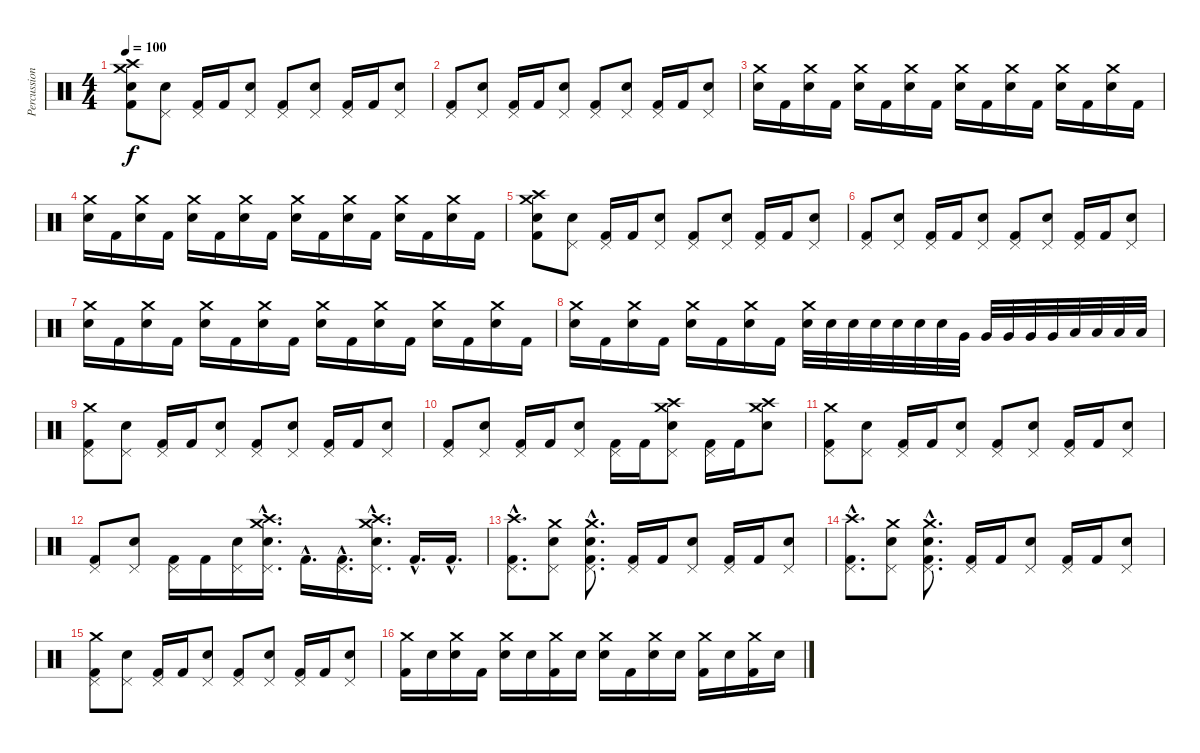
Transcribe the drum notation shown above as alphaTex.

\track ("Percussion" "Percussion") {instrument percussion}
\staff {score}
\articulation defaults
\ts (4 4)
\tempo 100
\clef neutral
\ks c
("Crash medium (hit)" "Crash high (hit)" "Electric Snare (hit)" "Kick (hit) 2").8{dy f} ("Pedal Hi-Hat (hit)" "Electric Snare (hit)").8 ("Pedal Hi-Hat (hit)" "Kick (hit) 2").16 "Kick (hit) 2".16 ("Pedal Hi-Hat (hit)" "Electric Snare (hit)").8 ("Pedal Hi-Hat (hit)" "Kick (hit) 2").8 ("Pedal Hi-Hat (hit)" "Electric Snare (hit)").8 ("Pedal Hi-Hat (hit)" "Kick (hit) 2").16 "Kick (hit) 2".16 ("Pedal Hi-Hat (hit)" "Electric Snare (hit)").8 |
("Pedal Hi-Hat (hit)" "Kick (hit) 2").8 ("Pedal Hi-Hat (hit)" "Electric Snare (hit)").8 ("Pedal Hi-Hat (hit)" "Kick (hit) 2").16 "Kick (hit) 2".16 ("Pedal Hi-Hat (hit)" "Electric Snare (hit)").8 ("Pedal Hi-Hat (hit)" "Kick (hit) 2").8 ("Pedal Hi-Hat (hit)" "Electric Snare (hit)").8 ("Pedal Hi-Hat (hit)" "Kick (hit) 2").16 "Kick (hit) 2".16 ("Pedal Hi-Hat (hit)" "Electric Snare (hit)").8 |
("Crash medium (hit)" "Electric Snare (hit)").16 "Kick (hit) 2".16 ("Crash medium (hit)" "Electric Snare (hit)").16 "Kick (hit) 2".16 ("Crash medium (hit)" "Electric Snare (hit)").16 "Kick (hit) 2".16 ("Crash medium (hit)" "Electric Snare (hit)").16 "Kick (hit) 2".16 ("Crash medium (hit)" "Electric Snare (hit)").16 "Kick (hit) 2".16 ("Crash medium (hit)" "Electric Snare (hit)").16 "Kick (hit) 2".16 ("Crash medium (hit)" "Electric Snare (hit)").16 "Kick (hit) 2".16 ("Crash medium (hit)" "Electric Snare (hit)").16 "Kick (hit) 2".16 |
("Crash medium (hit)" "Electric Snare (hit)").16 "Kick (hit) 2".16 ("Crash medium (hit)" "Electric Snare (hit)").16 "Kick (hit) 2".16 ("Crash medium (hit)" "Electric Snare (hit)").16 "Kick (hit) 2".16 ("Crash medium (hit)" "Electric Snare (hit)").16 "Kick (hit) 2".16 ("Crash medium (hit)" "Electric Snare (hit)").16 "Kick (hit) 2".16 ("Crash medium (hit)" "Electric Snare (hit)").16 "Kick (hit) 2".16 ("Crash medium (hit)" "Electric Snare (hit)").16 "Kick (hit) 2".16 ("Crash medium (hit)" "Electric Snare (hit)").16 "Kick (hit) 2".16 |
("Crash medium (hit)" "Crash high (hit)" "Electric Snare (hit)" "Kick (hit) 2").8 ("Pedal Hi-Hat (hit)" "Electric Snare (hit)").8 ("Pedal Hi-Hat (hit)" "Kick (hit) 2").16 "Kick (hit) 2".16 ("Pedal Hi-Hat (hit)" "Electric Snare (hit)").8 ("Pedal Hi-Hat (hit)" "Kick (hit) 2").8 ("Pedal Hi-Hat (hit)" "Electric Snare (hit)").8 ("Pedal Hi-Hat (hit)" "Kick (hit) 2").16 "Kick (hit) 2".16 ("Pedal Hi-Hat (hit)" "Electric Snare (hit)").8 |
("Pedal Hi-Hat (hit)" "Kick (hit) 2").8 ("Pedal Hi-Hat (hit)" "Electric Snare (hit)").8 ("Pedal Hi-Hat (hit)" "Kick (hit) 2").16 "Kick (hit) 2".16 ("Pedal Hi-Hat (hit)" "Electric Snare (hit)").8 ("Pedal Hi-Hat (hit)" "Kick (hit) 2").8 ("Pedal Hi-Hat (hit)" "Electric Snare (hit)").8 ("Pedal Hi-Hat (hit)" "Kick (hit) 2").16 "Kick (hit) 2".16 ("Pedal Hi-Hat (hit)" "Electric Snare (hit)").8 |
("Crash medium (hit)" "Electric Snare (hit)").16 "Kick (hit) 2".16 ("Crash medium (hit)" "Electric Snare (hit)").16 "Kick (hit) 2".16 ("Crash medium (hit)" "Electric Snare (hit)").16 "Kick (hit) 2".16 ("Crash medium (hit)" "Electric Snare (hit)").16 "Kick (hit) 2".16 ("Crash medium (hit)" "Electric Snare (hit)").16 "Kick (hit) 2".16 ("Crash medium (hit)" "Electric Snare (hit)").16 "Kick (hit) 2".16 ("Crash medium (hit)" "Electric Snare (hit)").16 "Kick (hit) 2".16 ("Crash medium (hit)" "Electric Snare (hit)").16 "Kick (hit) 2".16 |
("Crash medium (hit)" "Electric Snare (hit)").16 "Kick (hit) 2".16 ("Crash medium (hit)" "Electric Snare (hit)").16 "Kick (hit) 2".16 ("Crash medium (hit)" "Electric Snare (hit)").16 "Kick (hit) 2".16 ("Crash medium (hit)" "Electric Snare (hit)").16 "Kick (hit) 2".16 ("Crash medium (hit)" "Electric Snare (hit)").32 "Electric Snare (hit)".32 "Electric Snare (hit)".32 "Electric Snare (hit)".32 "Electric Snare (hit)".32 "Electric Snare (hit)".32 "Electric Snare (hit)".32 "Very Low Tom (hit)".32 "Very Low Tom (hit)".32 "Very Low Tom (hit)".32 "Very Low Tom (hit)".32 "Very Low Tom (hit)".32 "Low Floor Tom (hit)".32 "Low Floor Tom (hit)".32 "Low Floor Tom (hit)".32 "Low Floor Tom (hit)".32 |
("Crash medium (hit)" "Pedal Hi-Hat (hit)" "Kick (hit) 2").8 ("Pedal Hi-Hat (hit)" "Electric Snare (hit)").8 ("Pedal Hi-Hat (hit)" "Kick (hit) 2").16 "Kick (hit) 2".16 ("Pedal Hi-Hat (hit)" "Electric Snare (hit)").8 ("Pedal Hi-Hat (hit)" "Kick (hit) 2").8 ("Pedal Hi-Hat (hit)" "Electric Snare (hit)").8 ("Pedal Hi-Hat (hit)" "Kick (hit) 2").16 "Kick (hit) 2".16 ("Pedal Hi-Hat (hit)" "Electric Snare (hit)").8 |
("Pedal Hi-Hat (hit)" "Kick (hit) 2").8 ("Pedal Hi-Hat (hit)" "Electric Snare (hit)").8 ("Pedal Hi-Hat (hit)" "Kick (hit) 2").16 "Kick (hit) 2".16 ("Pedal Hi-Hat (hit)" "Electric Snare (hit)").8 ("Pedal Hi-Hat (hit)" "Kick (hit) 2").16 "Kick (hit) 2".16 ("Crash high (hit)" "Crash medium (hit)" "Pedal Hi-Hat (hit)" "Electric Snare (hit)").8 ("Pedal Hi-Hat (hit)" "Kick (hit) 2").16 "Kick (hit) 2".16 ("Crash high (hit)" "Crash medium (hit)" "Electric Snare (hit)").8 |
("Crash medium (hit)" "Pedal Hi-Hat (hit)" "Kick (hit) 2").8 ("Pedal Hi-Hat (hit)" "Electric Snare (hit)").8 ("Pedal Hi-Hat (hit)" "Kick (hit) 2").16 "Kick (hit) 2".16 ("Pedal Hi-Hat (hit)" "Electric Snare (hit)").8 ("Pedal Hi-Hat (hit)" "Kick (hit) 2").8 ("Pedal Hi-Hat (hit)" "Electric Snare (hit)").8 ("Pedal Hi-Hat (hit)" "Kick (hit) 2").16 "Kick (hit) 2".16 ("Pedal Hi-Hat (hit)" "Electric Snare (hit)").8 |
("Pedal Hi-Hat (hit)" "Kick (hit) 2").8 ("Pedal Hi-Hat (hit)" "Electric Snare (hit)").8 ("Pedal Hi-Hat (hit)" "Kick (hit) 2").16 "Kick (hit) 2".16 ("Pedal Hi-Hat (hit)" "Electric Snare (hit)").16 ("Crash high (hit)"{hac} "Crash medium (hit)"{hac} "Pedal Hi-Hat (hit)"{hac} "Electric Snare (hit)"{hac}).16{d} "Kick (hit) 2"{hac}.16{d} ("Pedal Hi-Hat (hit)"{hac} "Kick (hit) 2"{hac}).16{d} ("Crash high (hit)"{hac} "Crash medium (hit)"{hac} "Pedal Hi-Hat (hit)"{hac} "Electric Snare (hit)"{hac}).16{d} "Kick (hit) 2"{hac}.16{d} "Kick (hit) 2"{hac}.16{d} |
("Crash high (hit)"{hac} "Pedal Hi-Hat (hit)"{hac} "Kick (hit) 2"{hac}).8{d} ("Crash medium (hit)" "Pedal Hi-Hat (hit)" "Electric Snare (hit)").8 ("Crash medium (hit)"{hac} "Pedal Hi-Hat (hit)"{hac} "Kick (hit) 2"{hac} "Electric Snare (hit)"{hac}).8{d} ("Pedal Hi-Hat (hit)" "Kick (hit) 2").16 "Kick (hit) 2".16 ("Pedal Hi-Hat (hit)" "Electric Snare (hit)").8 ("Pedal Hi-Hat (hit)" "Kick (hit) 2").16 "Kick (hit) 2".16 ("Pedal Hi-Hat (hit)" "Electric Snare (hit)").8 |
("Crash high (hit)"{hac} "Pedal Hi-Hat (hit)"{hac} "Kick (hit) 2"{hac}).8{d} ("Crash medium (hit)" "Pedal Hi-Hat (hit)" "Electric Snare (hit)").8 ("Crash medium (hit)"{hac} "Pedal Hi-Hat (hit)"{hac} "Kick (hit) 2"{hac} "Electric Snare (hit)"{hac}).8{d} ("Pedal Hi-Hat (hit)" "Kick (hit) 2").16 "Kick (hit) 2".16 ("Pedal Hi-Hat (hit)" "Electric Snare (hit)").8 ("Pedal Hi-Hat (hit)" "Kick (hit) 2").16 "Kick (hit) 2".16 ("Pedal Hi-Hat (hit)" "Electric Snare (hit)").8 |
("Crash medium (hit)" "Pedal Hi-Hat (hit)" "Kick (hit) 2").8 ("Pedal Hi-Hat (hit)" "Electric Snare (hit)").8 ("Pedal Hi-Hat (hit)" "Kick (hit) 2").16 "Kick (hit) 2".16 ("Pedal Hi-Hat (hit)" "Electric Snare (hit)").8 ("Pedal Hi-Hat (hit)" "Kick (hit) 2").8 ("Pedal Hi-Hat (hit)" "Electric Snare (hit)").8 ("Pedal Hi-Hat (hit)" "Kick (hit) 2").16 "Kick (hit) 2".16 ("Pedal Hi-Hat (hit)" "Electric Snare (hit)").8 |
("Crash medium (hit)" "Kick (hit) 2").16 "Electric Snare (hit)".16 ("Crash medium (hit)" "Electric Snare (hit)").16 "Kick (hit) 2".16 ("Crash medium (hit)" "Electric Snare (hit)").16 "Electric Snare (hit)".16 ("Crash medium (hit)" "Kick (hit) 2").16 "Electric Snare (hit)".16 ("Crash medium (hit)" "Electric Snare (hit)").16 "Kick (hit) 2".16 ("Crash medium (hit)" "Electric Snare (hit)").16 "Electric Snare (hit)".16 ("Crash medium (hit)" "Kick (hit) 2").16 "Electric Snare (hit)".16 ("Crash medium (hit)" "Kick (hit) 2").16 "Electric Snare (hit)".16
